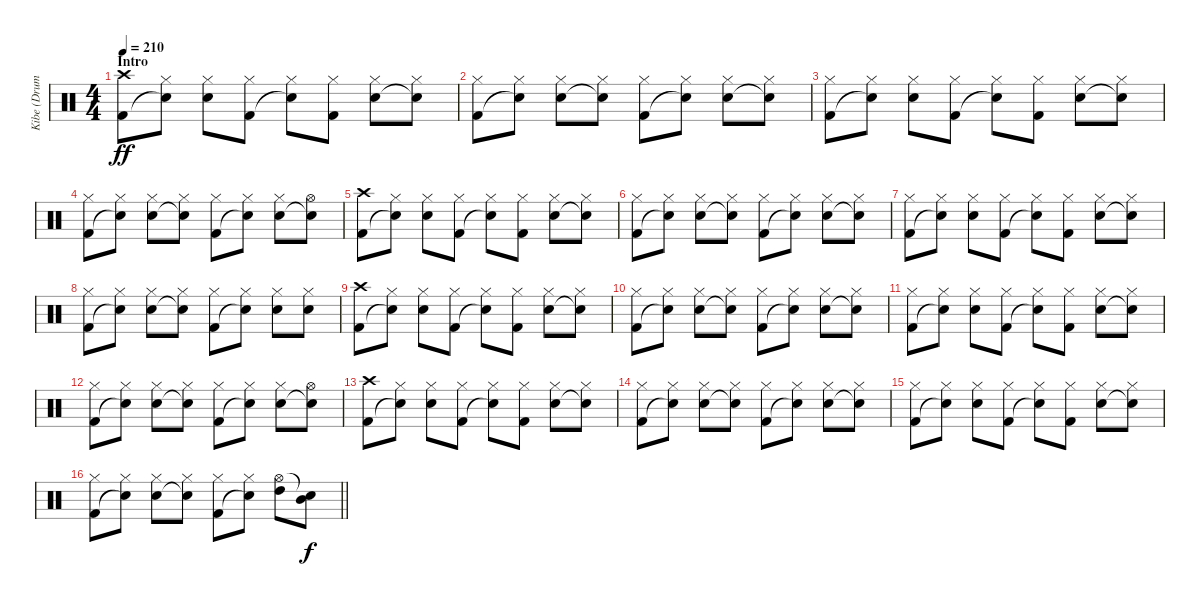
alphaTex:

\track ("Kibe (Drums)" "Kibe (Drum") {instrument percussion}
\staff {score}
\articulation defaults
\ts (4 4)
\section ("" "Intro")
\tempo 210
\clef neutral
\ks c
("Crash high (hit)" "Kick (hit) 2").8{dy ff} ("Hi-Hat (closed)" "Snare (hit)"{t}).8 ("Hi-Hat (closed)" "Snare (hit) 2").8 ("Hi-Hat (closed)" "Kick (hit) 2").8 ("Hi-Hat (closed)" "Snare (hit)"{t}).8 ("Hi-Hat (closed)" "Kick (hit) 2").8 ("Hi-Hat (closed)" "Snare (hit) 2").8 ("Hi-Hat (closed)" "Snare (hit)"{t}).8 |
("Hi-Hat (closed)" "Kick (hit) 2").8 ("Hi-Hat (closed)" "Snare (hit)"{t}).8 ("Hi-Hat (closed)" "Snare (hit) 2").8 ("Hi-Hat (closed)" "Snare (hit)"{t}).8 ("Hi-Hat (closed)" "Kick (hit) 2").8 ("Hi-Hat (closed)" "Snare (hit)"{t}).8 ("Hi-Hat (closed)" "Snare (hit) 2").8 ("Hi-Hat (closed)" "Snare (hit)"{t}).8 |
("Hi-Hat (closed)" "Kick (hit) 2").8 ("Hi-Hat (closed)" "Snare (hit)"{t}).8 ("Hi-Hat (closed)" "Snare (hit) 2").8 ("Hi-Hat (closed)" "Kick (hit) 2").8 ("Hi-Hat (closed)" "Snare (hit)"{t}).8 ("Hi-Hat (closed)" "Kick (hit) 2").8 ("Hi-Hat (closed)" "Snare (hit) 2").8 ("Hi-Hat (closed)" "Snare (hit)"{t}).8 |
("Hi-Hat (closed)" "Kick (hit) 2").8 ("Hi-Hat (closed)" "Snare (hit)"{t}).8 ("Hi-Hat (closed)" "Snare (hit) 2").8 ("Hi-Hat (closed)" "Snare (hit)"{t}).8 ("Hi-Hat (closed)" "Kick (hit) 2").8 ("Hi-Hat (closed)" "Snare (hit)"{t}).8 ("Hi-Hat (closed)" "Snare (hit) 2").8 ("Hi-Hat (open)" "Snare (hit)"{t}).8 |
("Crash high (hit)" "Kick (hit) 2").8 ("Hi-Hat (closed)" "Snare (hit)"{t}).8 ("Hi-Hat (closed)" "Snare (hit) 2").8 ("Hi-Hat (closed)" "Kick (hit) 2").8 ("Hi-Hat (closed)" "Snare (hit)"{t}).8 ("Hi-Hat (closed)" "Kick (hit) 2").8 ("Hi-Hat (closed)" "Snare (hit) 2").8 ("Hi-Hat (closed)" "Snare (hit)"{t}).8 |
("Hi-Hat (closed)" "Kick (hit) 2").8 ("Hi-Hat (closed)" "Snare (hit)"{t}).8 ("Hi-Hat (closed)" "Snare (hit) 2").8 ("Hi-Hat (closed)" "Snare (hit)"{t}).8 ("Hi-Hat (closed)" "Kick (hit) 2").8 ("Hi-Hat (closed)" "Snare (hit)"{t}).8 ("Hi-Hat (closed)" "Snare (hit) 2").8 ("Hi-Hat (closed)" "Snare (hit)"{t}).8 |
("Hi-Hat (closed)" "Kick (hit) 2").8 ("Hi-Hat (closed)" "Snare (hit)"{t}).8 ("Hi-Hat (closed)" "Snare (hit) 2").8 ("Hi-Hat (closed)" "Kick (hit) 2").8 ("Hi-Hat (closed)" "Snare (hit)"{t}).8 ("Hi-Hat (closed)" "Kick (hit) 2").8 ("Hi-Hat (closed)" "Snare (hit) 2").8 ("Hi-Hat (closed)" "Snare (hit)"{t}).8 |
("Hi-Hat (closed)" "Kick (hit) 2").8 ("Hi-Hat (closed)" "Snare (hit)"{t}).8 ("Hi-Hat (closed)" "Snare (hit) 2").8 ("Hi-Hat (closed)" "Snare (hit)"{t}).8 ("Hi-Hat (closed)" "Kick (hit) 2").8 ("Hi-Hat (closed)" "Snare (hit)"{t}).8 ("Hi-Hat (closed)" "Snare (hit) 2").8 ("Hi-Hat (closed)" "Snare (hit) 2").8 |
("Crash high (hit)" "Kick (hit) 2").8 ("Hi-Hat (closed)" "Snare (hit)"{t}).8 ("Hi-Hat (closed)" "Snare (hit) 2").8 ("Hi-Hat (closed)" "Kick (hit) 2").8 ("Hi-Hat (closed)" "Snare (hit)"{t}).8 ("Hi-Hat (closed)" "Kick (hit) 2").8 ("Hi-Hat (closed)" "Snare (hit) 2").8 ("Hi-Hat (closed)" "Snare (hit)"{t}).8 |
("Hi-Hat (closed)" "Kick (hit) 2").8 ("Hi-Hat (closed)" "Snare (hit)"{t}).8 ("Hi-Hat (closed)" "Snare (hit) 2").8 ("Hi-Hat (closed)" "Snare (hit)"{t}).8 ("Hi-Hat (closed)" "Kick (hit) 2").8 ("Hi-Hat (closed)" "Snare (hit)"{t}).8 ("Hi-Hat (closed)" "Snare (hit) 2").8 ("Hi-Hat (closed)" "Snare (hit)"{t}).8 |
("Hi-Hat (closed)" "Kick (hit) 2").8 ("Hi-Hat (closed)" "Snare (hit)"{t}).8 ("Hi-Hat (closed)" "Snare (hit) 2").8 ("Hi-Hat (closed)" "Kick (hit) 2").8 ("Hi-Hat (closed)" "Snare (hit)"{t}).8 ("Hi-Hat (closed)" "Kick (hit) 2").8 ("Hi-Hat (closed)" "Snare (hit) 2").8 ("Hi-Hat (closed)" "Snare (hit)"{t}).8 |
("Hi-Hat (closed)" "Kick (hit) 2").8 ("Hi-Hat (closed)" "Snare (hit)"{t}).8 ("Hi-Hat (closed)" "Snare (hit) 2").8 ("Hi-Hat (closed)" "Snare (hit)"{t}).8 ("Hi-Hat (closed)" "Kick (hit) 2").8 ("Hi-Hat (closed)" "Snare (hit)"{t}).8 ("Hi-Hat (closed)" "Snare (hit) 2").8 ("Hi-Hat (open)" "Snare (hit)"{t}).8 |
("Crash high (hit)" "Kick (hit) 2").8 ("Hi-Hat (closed)" "Snare (hit)"{t}).8 ("Hi-Hat (closed)" "Snare (hit) 2").8 ("Hi-Hat (closed)" "Kick (hit) 2").8 ("Hi-Hat (closed)" "Snare (hit)"{t}).8 ("Hi-Hat (closed)" "Kick (hit) 2").8 ("Hi-Hat (closed)" "Snare (hit) 2").8 ("Hi-Hat (closed)" "Snare (hit)"{t}).8 |
("Hi-Hat (closed)" "Kick (hit) 2").8 ("Hi-Hat (closed)" "Snare (hit)"{t}).8 ("Hi-Hat (closed)" "Snare (hit) 2").8 ("Hi-Hat (closed)" "Snare (hit)"{t}).8 ("Hi-Hat (closed)" "Kick (hit) 2").8 ("Hi-Hat (closed)" "Snare (hit)"{t}).8 ("Hi-Hat (closed)" "Snare (hit) 2").8 ("Hi-Hat (closed)" "Snare (hit)"{t}).8 |
("Hi-Hat (closed)" "Kick (hit) 2").8 ("Hi-Hat (closed)" "Snare (hit)"{t}).8 ("Hi-Hat (closed)" "Snare (hit) 2").8 ("Hi-Hat (closed)" "Kick (hit) 2").8 ("Hi-Hat (closed)" "Snare (hit)"{t}).8 ("Hi-Hat (closed)" "Kick (hit) 2").8 ("Hi-Hat (closed)" "Snare (hit) 2").8 ("Hi-Hat (closed)" "Snare (hit)"{t}).8 |
\barLineRight lightlight
("Hi-Hat (closed)" "Kick (hit) 2").8 ("Hi-Hat (closed)" "Snare (hit)"{t}).8 ("Hi-Hat (closed)" "Snare (hit) 2").8 ("Hi-Hat (closed)" "Snare (hit)"{t}).8 ("Hi-Hat (closed)" "Kick (hit) 2").8 ("Hi-Hat (closed)" "Snare (hit)"{t}).8 ("Hi-Hat (open)" "High Tom (hit)").8 ("Snare (hit)"{t} "Mid Tom (hit)").8{dy f}
